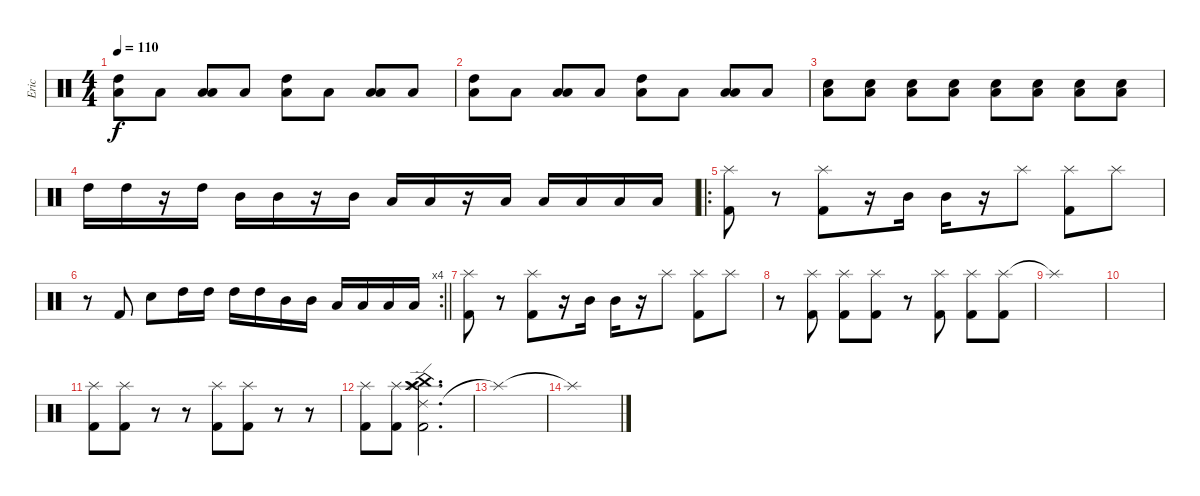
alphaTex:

\track ("Eric" "Eric") {instrument percussion}
\staff {score}
\articulation defaults
\ts (4 4)
\tempo 110
\clef neutral
\ks c
("Low Floor Tom (hit)" "High Tom (hit)").8{dy f} "Low Floor Tom (hit)".8 ("Low Floor Tom (hit)" "Low Tom (hit)").8 "Low Floor Tom (hit)".8 ("Low Floor Tom (hit)" "High Tom (hit)").8 "Low Floor Tom (hit)".8 ("Low Floor Tom (hit)" "Low Tom (hit)").8 "Low Floor Tom (hit)".8 |
("Low Floor Tom (hit)" "High Tom (hit)").8 "Low Floor Tom (hit)".8 ("Low Floor Tom (hit)" "Low Tom (hit)").8 "Low Floor Tom (hit)".8 ("Low Floor Tom (hit)" "High Tom (hit)").8 "Low Floor Tom (hit)".8 ("Low Floor Tom (hit)" "Low Tom (hit)").8 "Low Floor Tom (hit)".8 |
("Low Floor Tom (hit)" "Snare (hit) 2").8 ("Low Floor Tom (hit)" "Snare (hit) 2").8 ("Low Floor Tom (hit)" "Snare (hit) 2").8 ("Low Floor Tom (hit)" "Snare (hit) 2").8 ("Low Floor Tom (hit)" "Snare (hit) 2").8 ("Low Floor Tom (hit)" "Snare (hit) 2").8 ("Low Floor Tom (hit)" "Snare (hit) 2").8 ("Low Floor Tom (hit)" "Snare (hit) 2").8 |
"High Tom (hit)".16 "High Tom (hit)".16 r.16 "High Tom (hit)".16 "Mid Tom (hit)".16 "Mid Tom (hit)".16 r.16 "Mid Tom (hit)".16 "Low Tom (hit)".16 "Low Tom (hit)".16 r.16 "Low Tom (hit)".16 "Low Floor Tom (hit)".16 "Low Floor Tom (hit)".16 "Low Floor Tom (hit)".16 "Low Floor Tom (hit)".16 |
\ro
("Splash (hit)" "Kick (hit) 2").8 r.8 ("Splash (hit)" "Kick (hit) 2").8 r.16 "Mid Tom (hit)".16 "Mid Tom (hit)".16 r.16 "Splash (hit)".8 ("Splash (hit)" "Kick (hit) 2").8 "Splash (hit)".8 |
\rc 4
\barLineRight lightlight
r.8 "Kick (hit) 2".8 "Snare (hit) 2".8 "High Tom (hit)".16 "High Tom (hit)".16 "High Tom (hit)".16 "High Tom (hit)".16 "Mid Tom (hit)".16 "Mid Tom (hit)".16 "Low Tom (hit)".16 "Low Tom (hit)".16 "Low Floor Tom (hit)".16 "Low Floor Tom (hit)".16 |
("Splash (hit)" "Kick (hit) 2").8 r.8 ("Splash (hit)" "Kick (hit) 2").8 r.16 "Mid Tom (hit)".16 "Mid Tom (hit)".16 r.16 "Splash (hit)".8 ("Splash (hit)" "Kick (hit) 2").8 "Splash (hit)".8 |
r.8 ("Splash (hit)" "Kick (hit) 2").8 ("Splash (hit)" "Kick (hit) 2").8 ("Splash (hit)" "Kick (hit) 2").8 r.8 ("Splash (hit)" "Kick (hit) 2").8 ("Splash (hit)" "Kick (hit) 2").8 ("Splash (hit)" "Kick (hit) 2").8 |
"Splash (hit)"{t}.1 |
|
("Splash (hit)" "Kick (hit) 2").8 ("Splash (hit)" "Kick (hit) 2").8 r.8 r.8 ("Splash (hit)" "Kick (hit) 2").8 ("Splash (hit)" "Kick (hit) 2").8 r.8 r.8 |
("Splash (hit)" "Kick (hit) 2").8 ("Splash (hit)" "Kick (hit) 2").8 ("Ride (edge) 2" "Splash (hit)" "China (hit)" "Crash high (hit)" "Kick (hit) 2").2{d} |
"Splash (hit)"{t}.1 |
"Splash (hit)"{t}.1
